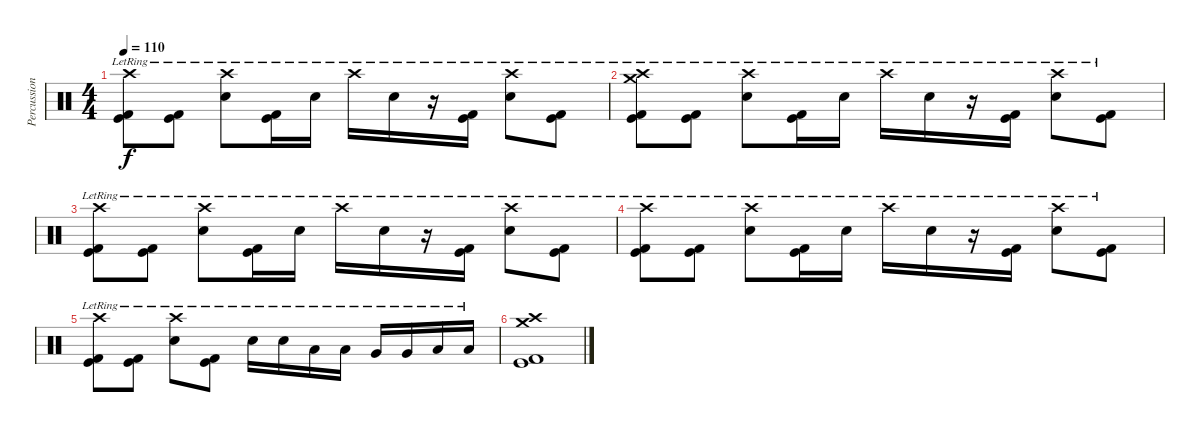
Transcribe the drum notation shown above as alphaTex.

\track ("Percussion" "Percussion") {instrument percussion}
\staff {score}
\articulation defaults
\ts (4 4)
\tempo 110
\clef neutral
\ks c
("Crash high (hit)"{lr} "Kick (hit) 2"{lr} "Kick (hit)"{lr}).8{dy f} ("Kick (hit) 2"{lr} "Kick (hit)"{lr}).8 ("Crash high (hit)"{lr} "Snare (hit) 2"{lr}).8 ("Kick (hit) 2"{lr} "Kick (hit)"{lr}).16 "Snare (hit) 2"{lr}.16 "Crash high (hit)"{lr}.16 "Snare (hit) 2"{lr}.16 r.16 ("Kick (hit) 2"{lr} "Kick (hit)"{lr}).16 ("Crash high (hit)"{lr} "Snare (hit) 2"{lr}).8 ("Kick (hit) 2"{lr} "Kick (hit)"{lr}).8 |
("Crash high (hit)"{lr} "Crash medium (hit)" "Kick (hit) 2"{lr} "Kick (hit)"{lr}).8 ("Kick (hit) 2"{lr} "Kick (hit)"{lr}).8 ("Crash high (hit)"{lr} "Snare (hit) 2"{lr}).8 ("Kick (hit) 2"{lr} "Kick (hit)"{lr}).16 "Snare (hit) 2"{lr}.16 "Crash high (hit)"{lr}.16 "Snare (hit) 2"{lr}.16 r.16 ("Kick (hit) 2"{lr} "Kick (hit)"{lr}).16 ("Crash high (hit)"{lr} "Snare (hit) 2"{lr}).8 ("Kick (hit) 2"{lr} "Kick (hit)"{lr}).8 |
("Crash high (hit)"{lr} "Kick (hit) 2"{lr} "Kick (hit)"{lr}).8 ("Kick (hit) 2"{lr} "Kick (hit)"{lr}).8 ("Crash high (hit)"{lr} "Snare (hit) 2"{lr}).8 ("Kick (hit) 2"{lr} "Kick (hit)"{lr}).16 "Snare (hit) 2"{lr}.16 "Crash high (hit)"{lr}.16 "Snare (hit) 2"{lr}.16 r.16 ("Kick (hit) 2"{lr} "Kick (hit)"{lr}).16 ("Crash high (hit)"{lr} "Snare (hit) 2"{lr}).8 ("Kick (hit) 2"{lr} "Kick (hit)"{lr}).8 |
("Crash high (hit)"{lr} "Kick (hit) 2"{lr} "Kick (hit)"{lr}).8 ("Kick (hit) 2"{lr} "Kick (hit)"{lr}).8 ("Crash high (hit)"{lr} "Snare (hit) 2"{lr}).8 ("Kick (hit) 2"{lr} "Kick (hit)"{lr}).16 "Snare (hit) 2"{lr}.16 "Crash high (hit)"{lr}.16 "Snare (hit) 2"{lr}.16 r.16 ("Kick (hit) 2"{lr} "Kick (hit)"{lr}).16 ("Crash high (hit)"{lr} "Snare (hit) 2"{lr}).8 ("Kick (hit) 2"{lr} "Kick (hit)"{lr}).8 |
("Crash high (hit)"{lr} "Kick (hit) 2"{lr} "Kick (hit)"{lr}).8 ("Kick (hit) 2"{lr} "Kick (hit)"{lr}).8 ("Crash high (hit)"{lr} "Snare (hit) 2"{lr}).8 ("Kick (hit) 2"{lr} "Kick (hit)"{lr}).8 "Snare (hit) 2"{lr}.16 "Snare (hit) 2"{lr}.16 "Low Tom (hit)"{lr}.16 "Low Tom (hit)"{lr}.16 "Very Low Tom (hit)"{lr}.16 "Very Low Tom (hit)"{lr}.16 "Low Floor Tom (hit)"{lr}.16 "Low Floor Tom (hit)"{lr}.16 |
("Crash medium (hit)" "Crash high (hit)" "Kick (hit) 2" "Kick (hit)").1
